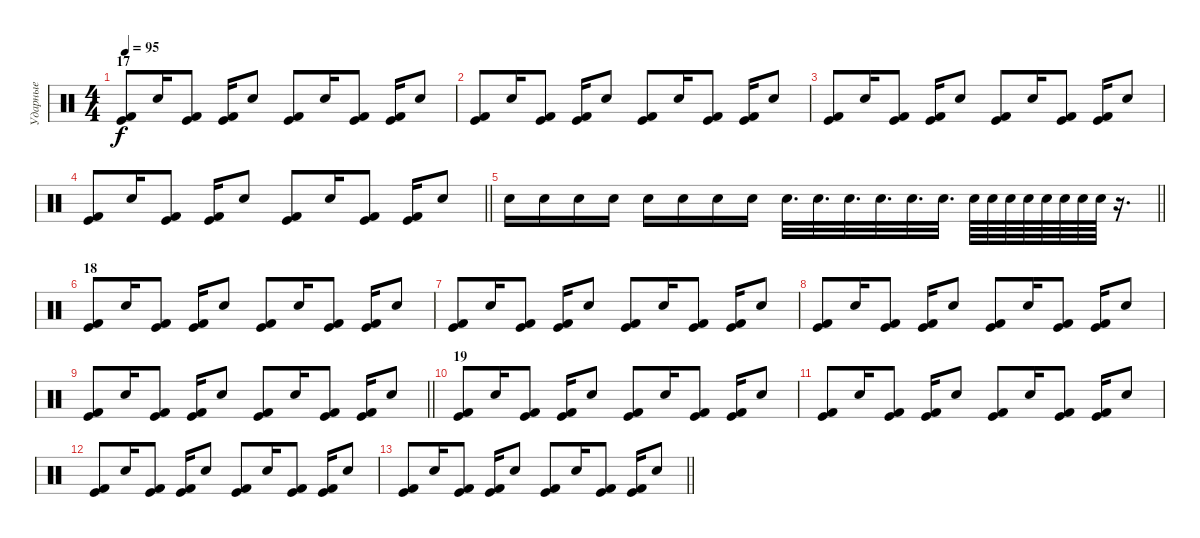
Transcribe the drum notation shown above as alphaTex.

\track ("Ударные" "Ударные") {instrument percussion}
\staff {score}
\articulation defaults
\ts (4 4)
\section ("" "17")
\tempo 95
\clef neutral
\ks c
("Kick (hit) 2" "Kick (hit)").8{dy f} "Electric Snare (hit)".16 ("Kick (hit) 2" "Kick (hit)").8 ("Kick (hit) 2" "Kick (hit)").16 "Electric Snare (hit)".8 ("Kick (hit) 2" "Kick (hit)").8 "Electric Snare (hit)".16 ("Kick (hit) 2" "Kick (hit)").8 ("Kick (hit) 2" "Kick (hit)").16 "Electric Snare (hit)".8 |
("Kick (hit) 2" "Kick (hit)").8 "Electric Snare (hit)".16 ("Kick (hit) 2" "Kick (hit)").8 ("Kick (hit) 2" "Kick (hit)").16 "Electric Snare (hit)".8 ("Kick (hit) 2" "Kick (hit)").8 "Electric Snare (hit)".16 ("Kick (hit) 2" "Kick (hit)").8 ("Kick (hit) 2" "Kick (hit)").16 "Electric Snare (hit)".8 |
("Kick (hit) 2" "Kick (hit)").8 "Electric Snare (hit)".16 ("Kick (hit) 2" "Kick (hit)").8 ("Kick (hit) 2" "Kick (hit)").16 "Electric Snare (hit)".8 ("Kick (hit) 2" "Kick (hit)").8 "Electric Snare (hit)".16 ("Kick (hit) 2" "Kick (hit)").8 ("Kick (hit) 2" "Kick (hit)").16 "Electric Snare (hit)".8 |
\barLineRight lightlight
("Kick (hit) 2" "Kick (hit)").8 "Electric Snare (hit)".16 ("Kick (hit) 2" "Kick (hit)").8 ("Kick (hit) 2" "Kick (hit)").16 "Electric Snare (hit)".8 ("Kick (hit) 2" "Kick (hit)").8 "Electric Snare (hit)".16 ("Kick (hit) 2" "Kick (hit)").8 ("Kick (hit) 2" "Kick (hit)").16 "Electric Snare (hit)".8 |
\barLineRight lightlight "Electric Snare (hit)".16 "Electric Snare (hit)".16 "Electric Snare (hit)".16 "Electric Snare (hit)".16 "Electric Snare (hit)".16 "Electric Snare (hit)".16 "Electric Snare (hit)".16 "Electric Snare (hit)".16 "Electric Snare (hit)".32{d} "Electric Snare (hit)".32{d} "Electric Snare (hit)".32{d} "Electric Snare (hit)".32{d} "Electric Snare (hit)".32{d} "Electric Snare (hit)".32{d} "Electric Snare (hit)".64 "Electric Snare (hit)".64 "Electric Snare (hit)".64 "Electric Snare (hit)".64 "Electric Snare (hit)".64 "Electric Snare (hit)".64 "Electric Snare (hit)".64 "Electric Snare (hit)".64
r.16{d} |
\section ("" "18")
("Kick (hit) 2" "Kick (hit)").8 "Electric Snare (hit)".16 ("Kick (hit) 2" "Kick (hit)").8 ("Kick (hit) 2" "Kick (hit)").16 "Electric Snare (hit)".8 ("Kick (hit) 2" "Kick (hit)").8 "Electric Snare (hit)".16 ("Kick (hit) 2" "Kick (hit)").8 ("Kick (hit) 2" "Kick (hit)").16 "Electric Snare (hit)".8 |
("Kick (hit) 2" "Kick (hit)").8 "Electric Snare (hit)".16 ("Kick (hit) 2" "Kick (hit)").8 ("Kick (hit) 2" "Kick (hit)").16 "Electric Snare (hit)".8 ("Kick (hit) 2" "Kick (hit)").8 "Electric Snare (hit)".16 ("Kick (hit) 2" "Kick (hit)").8 ("Kick (hit) 2" "Kick (hit)").16 "Electric Snare (hit)".8 |
("Kick (hit) 2" "Kick (hit)").8 "Electric Snare (hit)".16 ("Kick (hit) 2" "Kick (hit)").8 ("Kick (hit) 2" "Kick (hit)").16 "Electric Snare (hit)".8 ("Kick (hit) 2" "Kick (hit)").8 "Electric Snare (hit)".16 ("Kick (hit) 2" "Kick (hit)").8 ("Kick (hit) 2" "Kick (hit)").16 "Electric Snare (hit)".8 |
\barLineRight lightlight
("Kick (hit) 2" "Kick (hit)").8 "Electric Snare (hit)".16 ("Kick (hit) 2" "Kick (hit)").8 ("Kick (hit) 2" "Kick (hit)").16 "Electric Snare (hit)".8 ("Kick (hit) 2" "Kick (hit)").8 "Electric Snare (hit)".16 ("Kick (hit) 2" "Kick (hit)").8 ("Kick (hit) 2" "Kick (hit)").16 "Electric Snare (hit)".8 |
\section ("" "19")
("Kick (hit) 2" "Kick (hit)").8 "Electric Snare (hit)".16 ("Kick (hit) 2" "Kick (hit)").8 ("Kick (hit) 2" "Kick (hit)").16 "Electric Snare (hit)".8 ("Kick (hit) 2" "Kick (hit)").8 "Electric Snare (hit)".16 ("Kick (hit) 2" "Kick (hit)").8 ("Kick (hit) 2" "Kick (hit)").16 "Electric Snare (hit)".8 |
("Kick (hit) 2" "Kick (hit)").8 "Electric Snare (hit)".16 ("Kick (hit) 2" "Kick (hit)").8 ("Kick (hit) 2" "Kick (hit)").16 "Electric Snare (hit)".8 ("Kick (hit) 2" "Kick (hit)").8 "Electric Snare (hit)".16 ("Kick (hit) 2" "Kick (hit)").8 ("Kick (hit) 2" "Kick (hit)").16 "Electric Snare (hit)".8 |
("Kick (hit) 2" "Kick (hit)").8 "Electric Snare (hit)".16 ("Kick (hit) 2" "Kick (hit)").8 ("Kick (hit) 2" "Kick (hit)").16 "Electric Snare (hit)".8 ("Kick (hit) 2" "Kick (hit)").8 "Electric Snare (hit)".16 ("Kick (hit) 2" "Kick (hit)").8 ("Kick (hit) 2" "Kick (hit)").16 "Electric Snare (hit)".8 |
\barLineRight lightlight
("Kick (hit) 2" "Kick (hit)").8 "Electric Snare (hit)".16 ("Kick (hit) 2" "Kick (hit)").8 ("Kick (hit) 2" "Kick (hit)").16 "Electric Snare (hit)".8 ("Kick (hit) 2" "Kick (hit)").8 "Electric Snare (hit)".16 ("Kick (hit) 2" "Kick (hit)").8 ("Kick (hit) 2" "Kick (hit)").16 "Electric Snare (hit)".8
